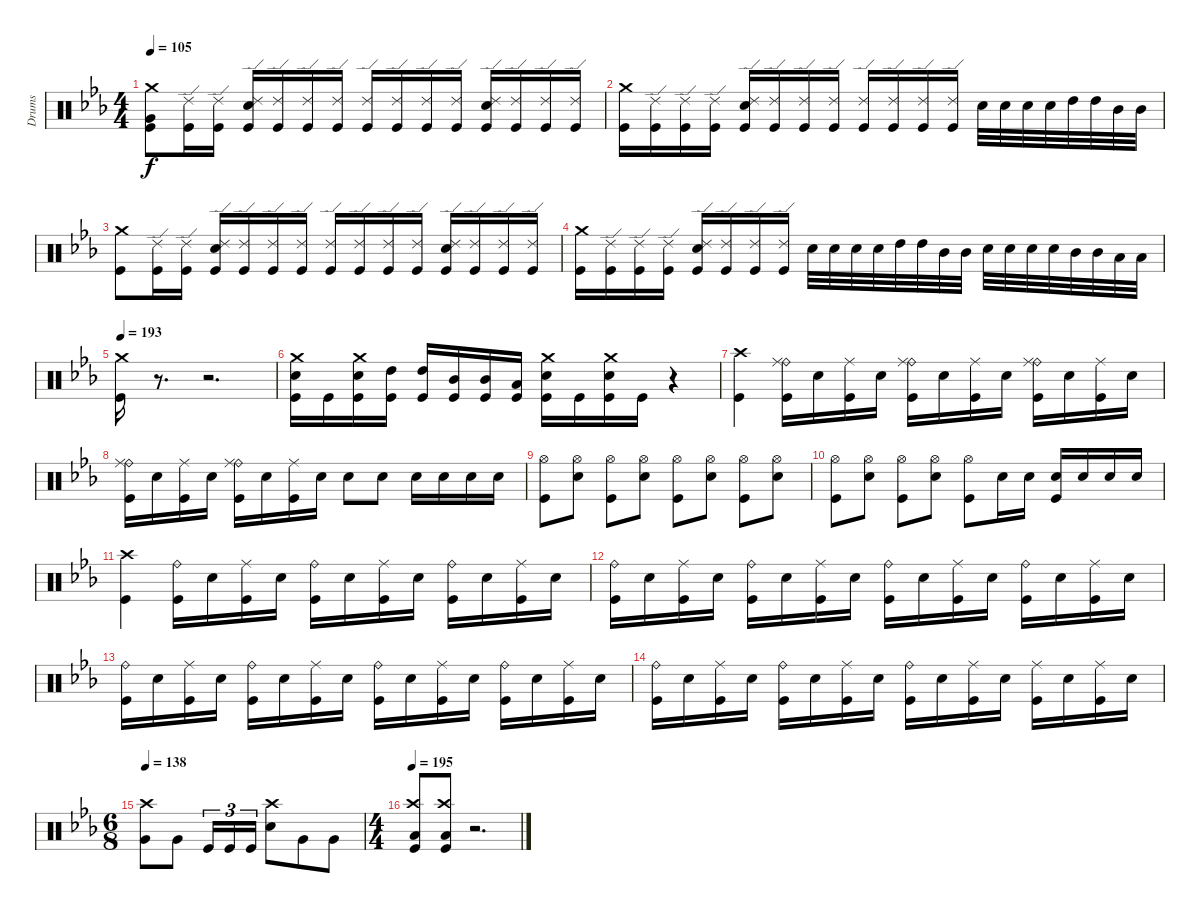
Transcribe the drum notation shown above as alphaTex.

\track ("Drums" "Drums") {instrument percussion}
\staff {score}
\articulation defaults
\ts (4 4)
\tempo 105
\clef neutral
\ks cminor
("Crash medium (hit)" "Very Low Tom (hit)" "Kick (hit)").8{dy f} ("Ride (edge) 2" "Kick (hit)").16 ("Ride (edge) 2" "Kick (hit)").16 ("Ride (edge) 2" "Electric Snare (hit)" "Kick (hit)").16 ("Ride (edge) 2" "Kick (hit)").16 ("Ride (edge) 2" "Kick (hit)").16 ("Ride (edge) 2" "Kick (hit)").16 ("Ride (edge) 2" "Kick (hit)").16 ("Ride (edge) 2" "Kick (hit)").16 ("Ride (edge) 2" "Kick (hit)").16 ("Ride (edge) 2" "Kick (hit)").16 ("Ride (edge) 2" "Electric Snare (hit)" "Kick (hit)").16 ("Ride (edge) 2" "Kick (hit)").16 ("Ride (edge) 2" "Kick (hit)").16 ("Ride (edge) 2" "Kick (hit)").16 |
("Crash medium (hit)" "Kick (hit)").16 ("Ride (edge) 2" "Kick (hit)").16 ("Ride (edge) 2" "Kick (hit)").16 ("Ride (edge) 2" "Kick (hit)").16 ("Ride (edge) 2" "Electric Snare (hit)" "Kick (hit)").16 ("Ride (edge) 2" "Kick (hit)").16 ("Ride (edge) 2" "Kick (hit)").16 ("Ride (edge) 2" "Kick (hit)").16 ("Ride (edge) 2" "Kick (hit)").16 ("Ride (edge) 2" "Kick (hit)").16 ("Ride (edge) 2" "Kick (hit)").16 ("Ride (edge) 2" "Kick (hit)").16 "Electric Snare (hit)".32 "Electric Snare (hit)".32 "Electric Snare (hit)".32 "Electric Snare (hit)".32 "High Tom (hit)".32 "High Tom (hit)".32 "Mid Tom (hit)".32 "Mid Tom (hit)".32 |
("Crash medium (hit)" "Kick (hit)").8 ("Ride (edge) 2" "Kick (hit)").16 ("Ride (edge) 2" "Kick (hit)").16 ("Ride (edge) 2" "Electric Snare (hit)" "Kick (hit)").16 ("Ride (edge) 2" "Kick (hit)").16 ("Ride (edge) 2" "Kick (hit)").16 ("Ride (edge) 2" "Kick (hit)").16 ("Ride (edge) 2" "Kick (hit)").16 ("Ride (edge) 2" "Kick (hit)").16 ("Ride (edge) 2" "Kick (hit)").16 ("Ride (edge) 2" "Kick (hit)").16 ("Ride (edge) 2" "Electric Snare (hit)" "Kick (hit)").16 ("Ride (edge) 2" "Kick (hit)").16 ("Ride (edge) 2" "Kick (hit)").16 ("Ride (edge) 2" "Kick (hit)").16 |
("Crash medium (hit)" "Kick (hit)").16 ("Ride (edge) 2" "Kick (hit)").16 ("Ride (edge) 2" "Kick (hit)").16 ("Ride (edge) 2" "Kick (hit)").16 ("Ride (edge) 2" "Electric Snare (hit)" "Kick (hit)").16 ("Ride (edge) 2" "Kick (hit)").16 ("Ride (edge) 2" "Kick (hit)").16 ("Ride (edge) 2" "Kick (hit)").16 "Electric Snare (hit)".32 "Electric Snare (hit)".32 "Electric Snare (hit)".32 "Electric Snare (hit)".32 "High Tom (hit)".32 "High Tom (hit)".32 "Mid Tom (hit)".32 "Mid Tom (hit)".32 "Electric Snare (hit)".32 "Electric Snare (hit)".32 "Electric Snare (hit)".32 "Electric Snare (hit)".32 "Mid Tom (hit)".32 "Mid Tom (hit)".32 "Low Tom (hit)".32 "Low Tom (hit)".32 |
\tempo 193
("Crash medium (hit)" "Kick (hit)").16 r.8{d} r.2{d} |
("Crash medium (hit)" "Electric Snare (hit)" "Kick (hit)").16 "Kick (hit)".16 ("Crash medium (hit)" "Electric Snare (hit)" "Kick (hit)").16 ("High Tom (hit)" "Kick (hit)").16 ("High Tom (hit)" "Kick (hit)").16 ("Mid Tom (hit)" "Kick (hit)").16 ("Mid Tom (hit)" "Kick (hit)").16 ("Low Tom (hit)" "Kick (hit)").16 ("Crash medium (hit)" "Electric Snare (hit)" "Kick (hit)").16 "Kick (hit)".16 ("Crash medium (hit)" "Electric Snare (hit)" "Kick (hit)").16 "Kick (hit)".16 r.4 |
("Crash high (hit)" "Kick (hit)").4 ("Ride (bell)" "Ride (middle)" "Kick (hit)").16 "Electric Snare (hit)".16 ("Ride (middle)" "Kick (hit)").16 "Electric Snare (hit)".16 ("Ride (bell)" "Ride (middle)" "Kick (hit)").16 "Electric Snare (hit)".16 ("Ride (middle)" "Kick (hit)").16 "Electric Snare (hit)".16 ("Ride (bell)" "Ride (middle)" "Kick (hit)").16 "Electric Snare (hit)".16 ("Ride (middle)" "Kick (hit)").16 "Electric Snare (hit)".16 |
("Ride (bell)" "Ride (middle)" "Kick (hit)").16 "Electric Snare (hit)".16 ("Ride (middle)" "Kick (hit)").16 "Electric Snare (hit)".16 ("Ride (bell)" "Ride (middle)" "Kick (hit)").16 "Electric Snare (hit)".16 ("Ride (middle)" "Kick (hit)").16 "Electric Snare (hit)".16 "Electric Snare (hit)".8 "Electric Snare (hit)".8 "Electric Snare (hit)".16 "Electric Snare (hit)".16 "Electric Snare (hit)".16 "Electric Snare (hit)".16 |
("Hi-Hat (open)" "Kick (hit)").8 ("Hi-Hat (open)" "Electric Snare (hit)").8 ("Hi-Hat (open)" "Kick (hit)").8 ("Hi-Hat (open)" "Electric Snare (hit)").8 ("Hi-Hat (open)" "Kick (hit)").8 ("Hi-Hat (open)" "Electric Snare (hit)").8 ("Hi-Hat (open)" "Kick (hit)").8 ("Hi-Hat (open)" "Electric Snare (hit)").8 |
("Hi-Hat (open)" "Kick (hit)").8 ("Hi-Hat (open)" "Electric Snare (hit)").8 ("Hi-Hat (open)" "Kick (hit)").8 ("Hi-Hat (open)" "Electric Snare (hit)").8 ("Hi-Hat (open)" "Kick (hit)").8 "Electric Snare (hit)".16 "Electric Snare (hit)".16 ("Electric Snare (hit)" "Kick (hit)").16 "Electric Snare (hit)".16 "Electric Snare (hit)".16 "Electric Snare (hit)".16 |
("Crash high (hit)" "Kick (hit)").4 ("Ride (bell)" "Kick (hit)").16 "Electric Snare (hit)".16 ("Ride (middle)" "Kick (hit)").16 "Electric Snare (hit)".16 ("Ride (bell)" "Kick (hit)").16 "Electric Snare (hit)".16 ("Ride (middle)" "Kick (hit)").16 "Electric Snare (hit)".16 ("Ride (bell)" "Kick (hit)").16 "Electric Snare (hit)".16 ("Ride (middle)" "Kick (hit)").16 "Electric Snare (hit)".16 |
("Ride (bell)" "Kick (hit)").16 "Electric Snare (hit)".16 ("Ride (middle)" "Kick (hit)").16 "Electric Snare (hit)".16 ("Ride (bell)" "Kick (hit)").16 "Electric Snare (hit)".16 ("Ride (middle)" "Kick (hit)").16 "Electric Snare (hit)".16 ("Ride (bell)" "Kick (hit)").16 "Electric Snare (hit)".16 ("Ride (middle)" "Kick (hit)").16 "Electric Snare (hit)".16 ("Ride (bell)" "Kick (hit)").16 "Electric Snare (hit)".16 ("Ride (middle)" "Kick (hit)").16 "Electric Snare (hit)".16 |
("Ride (bell)" "Kick (hit)").16 "Electric Snare (hit)".16 ("Ride (middle)" "Kick (hit)").16 "Electric Snare (hit)".16 ("Ride (bell)" "Kick (hit)").16 "Electric Snare (hit)".16 ("Ride (middle)" "Kick (hit)").16 "Electric Snare (hit)".16 ("Ride (bell)" "Kick (hit)").16 "Electric Snare (hit)".16 ("Ride (middle)" "Kick (hit)").16 "Electric Snare (hit)".16 ("Ride (bell)" "Kick (hit)").16 "Electric Snare (hit)".16 ("Ride (middle)" "Kick (hit)").16 "Electric Snare (hit)".16 |
("Ride (bell)" "Kick (hit)").16 "Electric Snare (hit)".16 ("Ride (middle)" "Kick (hit)").16 "Electric Snare (hit)".16 ("Ride (bell)" "Kick (hit)").16 "Electric Snare (hit)".16 ("Ride (middle)" "Kick (hit)").16 "Electric Snare (hit)".16 ("Ride (bell)" "Kick (hit)").16 "Electric Snare (hit)".16 ("Ride (middle)" "Kick (hit)").16 "Electric Snare (hit)".16 ("Ride (middle)" "Kick (hit)").16 "Electric Snare (hit)".16 ("Ride (middle)" "Kick (hit)").16 "Electric Snare (hit)".16 |
\ts (6 8)
\tempo 138
("Crash high (hit)" "Very Low Tom (hit)").8 "Very Low Tom (hit)".8 "Kick (hit)".16{tu (3 2)} "Kick (hit)".16{tu (3 2)} "Kick (hit)".16{tu (3 2)} ("Crash high (hit)" "Electric Snare (hit)").8 "Very Low Tom (hit)".8 "Very Low Tom (hit)".8 |
\ts (4 4)
\tempo 195
("Crash high (hit)" "Low Floor Tom (hit)" "Kick (hit)").8 ("Crash high (hit)" "Low Floor Tom (hit)" "Kick (hit)").8 r.2{d}
